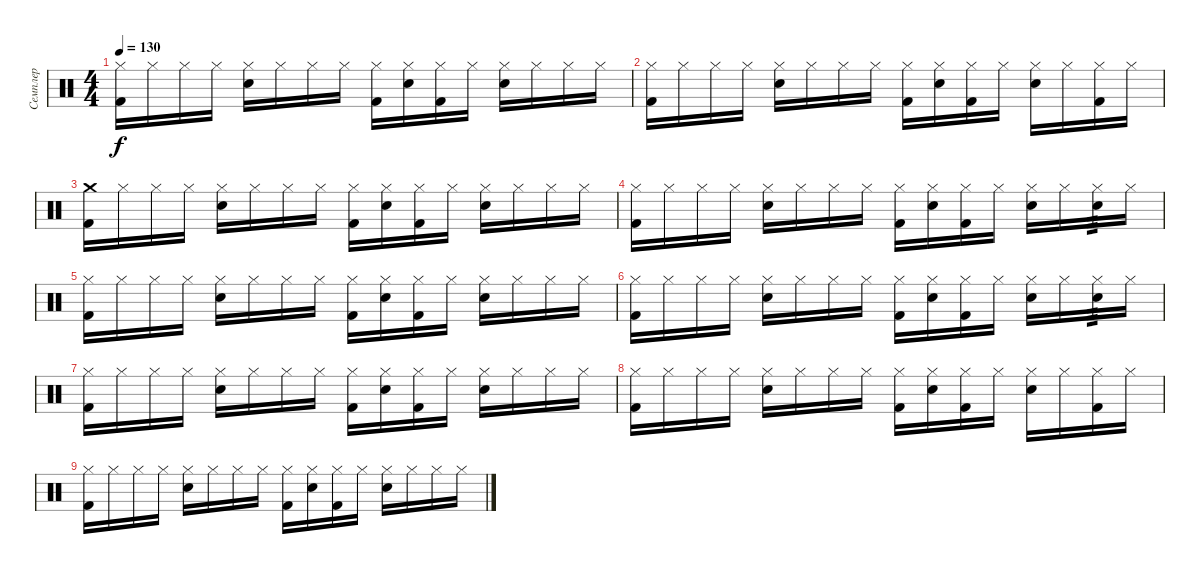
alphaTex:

\track ("Семплер" "Семплер") {instrument percussion}
\staff {score}
\articulation defaults
\ts (4 4)
\tempo 130
\clef neutral
\ks c
("Hi-Hat (closed)" "Kick (hit) 2").16{dy f} "Hi-Hat (closed)".16 "Hi-Hat (closed)".16 "Hi-Hat (closed)".16 ("Hi-Hat (closed)" "Snare (hit) 2").16 "Hi-Hat (closed)".16 "Hi-Hat (closed)".16 "Hi-Hat (closed)".16 ("Hi-Hat (closed)" "Kick (hit) 2").16 ("Hi-Hat (closed)" "Snare (hit) 2").16 ("Hi-Hat (closed)" "Kick (hit) 2").16 "Hi-Hat (closed)".16 ("Hi-Hat (closed)" "Snare (hit) 2").16 "Hi-Hat (closed)".16 "Hi-Hat (closed)".16 "Hi-Hat (closed)".16 |
("Hi-Hat (closed)" "Kick (hit) 2").16 "Hi-Hat (closed)".16 "Hi-Hat (closed)".16 "Hi-Hat (closed)".16 ("Hi-Hat (closed)" "Snare (hit) 2").16 "Hi-Hat (closed)".16 "Hi-Hat (closed)".16 "Hi-Hat (closed)".16 ("Hi-Hat (closed)" "Kick (hit) 2").16 ("Hi-Hat (closed)" "Snare (hit) 2").16 ("Hi-Hat (closed)" "Kick (hit) 2").16 "Hi-Hat (closed)".16 ("Hi-Hat (closed)" "Snare (hit) 2").16 "Hi-Hat (closed)".16 ("Hi-Hat (closed)" "Kick (hit) 2").16 "Hi-Hat (closed)".16 |
("Crash medium (hit)" "Kick (hit) 2").16 "Hi-Hat (closed)".16 "Hi-Hat (closed)".16 "Hi-Hat (closed)".16 ("Hi-Hat (closed)" "Snare (hit) 2").16 "Hi-Hat (closed)".16 "Hi-Hat (closed)".16 "Hi-Hat (closed)".16 ("Hi-Hat (closed)" "Kick (hit) 2").16 ("Hi-Hat (closed)" "Snare (hit) 2").16 ("Hi-Hat (closed)" "Kick (hit) 2").16 "Hi-Hat (closed)".16 ("Hi-Hat (closed)" "Snare (hit) 2").16 "Hi-Hat (closed)".16 "Hi-Hat (closed)".16 "Hi-Hat (closed)".16 |
("Hi-Hat (closed)" "Kick (hit) 2").16 "Hi-Hat (closed)".16 "Hi-Hat (closed)".16 "Hi-Hat (closed)".16 ("Hi-Hat (closed)" "Snare (hit) 2").16 "Hi-Hat (closed)".16 "Hi-Hat (closed)".16 "Hi-Hat (closed)".16 ("Hi-Hat (closed)" "Kick (hit) 2").16 ("Hi-Hat (closed)" "Snare (hit) 2").16 ("Hi-Hat (closed)" "Kick (hit) 2").16 "Hi-Hat (closed)".16 ("Hi-Hat (closed)" "Snare (hit) 2").16 "Hi-Hat (closed)".16 ("Hi-Hat (closed)" "Snare (hit) 2").16{tp 3} "Hi-Hat (closed)".16 |
("Hi-Hat (closed)" "Kick (hit) 2").16 "Hi-Hat (closed)".16 "Hi-Hat (closed)".16 "Hi-Hat (closed)".16 ("Hi-Hat (closed)" "Snare (hit) 2").16 "Hi-Hat (closed)".16 "Hi-Hat (closed)".16 "Hi-Hat (closed)".16 ("Hi-Hat (closed)" "Kick (hit) 2").16 ("Hi-Hat (closed)" "Snare (hit) 2").16 ("Hi-Hat (closed)" "Kick (hit) 2").16 "Hi-Hat (closed)".16 ("Hi-Hat (closed)" "Snare (hit) 2").16 "Hi-Hat (closed)".16 "Hi-Hat (closed)".16 "Hi-Hat (closed)".16 |
("Hi-Hat (closed)" "Kick (hit) 2").16 "Hi-Hat (closed)".16 "Hi-Hat (closed)".16 "Hi-Hat (closed)".16 ("Hi-Hat (closed)" "Snare (hit) 2").16 "Hi-Hat (closed)".16 "Hi-Hat (closed)".16 "Hi-Hat (closed)".16 ("Hi-Hat (closed)" "Kick (hit) 2").16 ("Hi-Hat (closed)" "Snare (hit) 2").16 ("Hi-Hat (closed)" "Kick (hit) 2").16 "Hi-Hat (closed)".16 ("Hi-Hat (closed)" "Snare (hit) 2").16 "Hi-Hat (closed)".16 ("Hi-Hat (closed)" "Snare (hit) 2").16{tp 3} "Hi-Hat (closed)".16 |
("Hi-Hat (closed)" "Kick (hit) 2").16 "Hi-Hat (closed)".16 "Hi-Hat (closed)".16 "Hi-Hat (closed)".16 ("Hi-Hat (closed)" "Snare (hit) 2").16 "Hi-Hat (closed)".16 "Hi-Hat (closed)".16 "Hi-Hat (closed)".16 ("Hi-Hat (closed)" "Kick (hit) 2").16 ("Hi-Hat (closed)" "Snare (hit) 2").16 ("Hi-Hat (closed)" "Kick (hit) 2").16 "Hi-Hat (closed)".16 ("Hi-Hat (closed)" "Snare (hit) 2").16 "Hi-Hat (closed)".16 "Hi-Hat (closed)".16 "Hi-Hat (closed)".16 |
("Hi-Hat (closed)" "Kick (hit) 2").16 "Hi-Hat (closed)".16 "Hi-Hat (closed)".16 "Hi-Hat (closed)".16 ("Hi-Hat (closed)" "Snare (hit) 2").16 "Hi-Hat (closed)".16 "Hi-Hat (closed)".16 "Hi-Hat (closed)".16 ("Hi-Hat (closed)" "Kick (hit) 2").16 ("Hi-Hat (closed)" "Snare (hit) 2").16 ("Hi-Hat (closed)" "Kick (hit) 2").16 "Hi-Hat (closed)".16 ("Hi-Hat (closed)" "Snare (hit) 2").16 "Hi-Hat (closed)".16 ("Hi-Hat (closed)" "Kick (hit) 2").16 "Hi-Hat (closed)".16 |
("Hi-Hat (closed)" "Kick (hit) 2").16 "Hi-Hat (closed)".16 "Hi-Hat (closed)".16 "Hi-Hat (closed)".16 ("Hi-Hat (closed)" "Snare (hit) 2").16 "Hi-Hat (closed)".16 "Hi-Hat (closed)".16 "Hi-Hat (closed)".16 ("Hi-Hat (closed)" "Kick (hit) 2").16 ("Hi-Hat (closed)" "Snare (hit) 2").16 ("Hi-Hat (closed)" "Kick (hit) 2").16 "Hi-Hat (closed)".16 ("Hi-Hat (closed)" "Snare (hit) 2").16 "Hi-Hat (closed)".16 "Hi-Hat (closed)".16 "Hi-Hat (closed)".16
